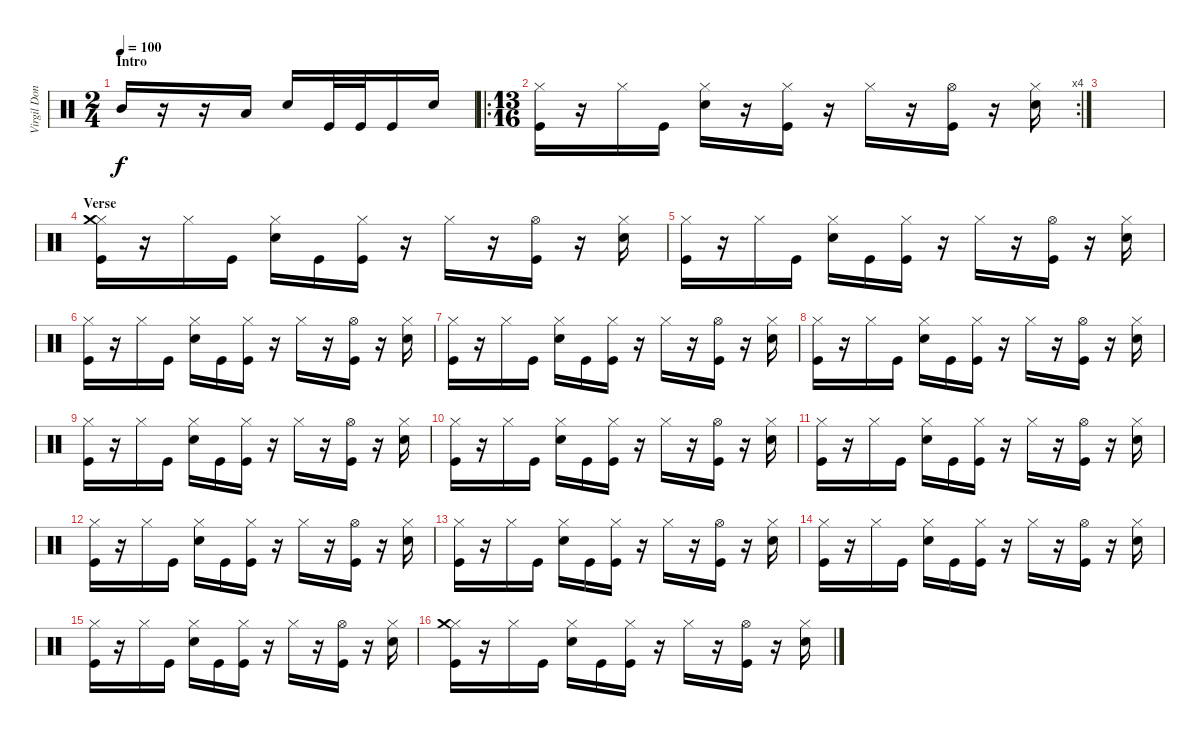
\track ("Virgil Donati" "Virgil Don") {instrument percussion}
\staff {score}
\articulation defaults
\ts (2 4)
\section ("" "Intro")
\tempo 100
\clef neutral
\ks c "Mid Tom (hit)".16{dy f}
r.16 r.16 "Low Tom (hit)".16 "Electric Snare (hit)".16 "Kick (hit)".32 "Kick (hit)".32 "Kick (hit)".16 "Electric Snare (hit)".16 |
\ro
\rc 4
\ts (13 16)
("Hi-Hat (closed)" "Kick (hit)").16 r.16 "Hi-Hat (closed)".16 "Kick (hit)".16 ("Hi-Hat (closed)" "Electric Snare (hit)").16 r.16 ("Hi-Hat (closed)" "Kick (hit)").16 r.16 "Hi-Hat (closed)".16 r.16 ("Hi-Hat (open)" "Kick (hit)").16 r.16 ("Hi-Hat (closed)" "Electric Snare (hit)").16 |
|
\section ("" "Verse")
("Hi-Hat (closed)" "Crash medium (hit)" "Kick (hit)").16 r.16 "Hi-Hat (closed)".16 "Kick (hit)".16 ("Hi-Hat (closed)" "Electric Snare (hit)").16 "Kick (hit)".16 ("Hi-Hat (closed)" "Kick (hit)").16 r.16 "Hi-Hat (closed)".16 r.16 ("Hi-Hat (open)" "Kick (hit)").16 r.16 ("Hi-Hat (closed)" "Electric Snare (hit)").16 |
("Hi-Hat (closed)" "Kick (hit)").16 r.16 "Hi-Hat (closed)".16 "Kick (hit)".16 ("Hi-Hat (closed)" "Electric Snare (hit)").16 "Kick (hit)".16 ("Hi-Hat (closed)" "Kick (hit)").16 r.16 "Hi-Hat (closed)".16 r.16 ("Hi-Hat (open)" "Kick (hit)").16 r.16 ("Hi-Hat (closed)" "Electric Snare (hit)").16 |
("Hi-Hat (closed)" "Kick (hit)").16 r.16 "Hi-Hat (closed)".16 "Kick (hit)".16 ("Hi-Hat (closed)" "Electric Snare (hit)").16 "Kick (hit)".16 ("Hi-Hat (closed)" "Kick (hit)").16 r.16 "Hi-Hat (closed)".16 r.16 ("Hi-Hat (open)" "Kick (hit)").16 r.16 ("Hi-Hat (closed)" "Electric Snare (hit)").16 |
("Hi-Hat (closed)" "Kick (hit)").16 r.16 "Hi-Hat (closed)".16 "Kick (hit)".16 ("Hi-Hat (closed)" "Electric Snare (hit)").16 "Kick (hit)".16 ("Hi-Hat (closed)" "Kick (hit)").16 r.16 "Hi-Hat (closed)".16 r.16 ("Hi-Hat (open)" "Kick (hit)").16 r.16 ("Hi-Hat (closed)" "Electric Snare (hit)").16 |
("Hi-Hat (closed)" "Kick (hit)").16 r.16 "Hi-Hat (closed)".16 "Kick (hit)".16 ("Hi-Hat (closed)" "Electric Snare (hit)").16 "Kick (hit)".16 ("Hi-Hat (closed)" "Kick (hit)").16 r.16 "Hi-Hat (closed)".16 r.16 ("Hi-Hat (open)" "Kick (hit)").16 r.16 ("Hi-Hat (closed)" "Electric Snare (hit)").16 |
("Hi-Hat (closed)" "Kick (hit)").16 r.16 "Hi-Hat (closed)".16 "Kick (hit)".16 ("Hi-Hat (closed)" "Electric Snare (hit)").16 "Kick (hit)".16 ("Hi-Hat (closed)" "Kick (hit)").16 r.16 "Hi-Hat (closed)".16 r.16 ("Hi-Hat (open)" "Kick (hit)").16 r.16 ("Hi-Hat (closed)" "Electric Snare (hit)").16 |
("Hi-Hat (closed)" "Kick (hit)").16 r.16 "Hi-Hat (closed)".16 "Kick (hit)".16 ("Hi-Hat (closed)" "Electric Snare (hit)").16 "Kick (hit)".16 ("Hi-Hat (closed)" "Kick (hit)").16 r.16 "Hi-Hat (closed)".16 r.16 ("Hi-Hat (open)" "Kick (hit)").16 r.16 ("Hi-Hat (closed)" "Electric Snare (hit)").16 |
("Hi-Hat (closed)" "Kick (hit)").16 r.16 "Hi-Hat (closed)".16 "Kick (hit)".16 ("Hi-Hat (closed)" "Electric Snare (hit)").16 "Kick (hit)".16 ("Hi-Hat (closed)" "Kick (hit)").16 r.16 "Hi-Hat (closed)".16 r.16 ("Hi-Hat (open)" "Kick (hit)").16 r.16 ("Hi-Hat (closed)" "Electric Snare (hit)").16 |
("Hi-Hat (closed)" "Kick (hit)").16 r.16 "Hi-Hat (closed)".16 "Kick (hit)".16 ("Hi-Hat (closed)" "Electric Snare (hit)").16 "Kick (hit)".16 ("Hi-Hat (closed)" "Kick (hit)").16 r.16 "Hi-Hat (closed)".16 r.16 ("Hi-Hat (open)" "Kick (hit)").16 r.16 ("Hi-Hat (closed)" "Electric Snare (hit)").16 |
("Hi-Hat (closed)" "Kick (hit)").16 r.16 "Hi-Hat (closed)".16 "Kick (hit)".16 ("Hi-Hat (closed)" "Electric Snare (hit)").16 "Kick (hit)".16 ("Hi-Hat (closed)" "Kick (hit)").16 r.16 "Hi-Hat (closed)".16 r.16 ("Hi-Hat (open)" "Kick (hit)").16 r.16 ("Hi-Hat (closed)" "Electric Snare (hit)").16 |
("Hi-Hat (closed)" "Kick (hit)").16 r.16 "Hi-Hat (closed)".16 "Kick (hit)".16 ("Hi-Hat (closed)" "Electric Snare (hit)").16 "Kick (hit)".16 ("Hi-Hat (closed)" "Kick (hit)").16 r.16 "Hi-Hat (closed)".16 r.16 ("Hi-Hat (open)" "Kick (hit)").16 r.16 ("Hi-Hat (closed)" "Electric Snare (hit)").16 |
("Hi-Hat (closed)" "Kick (hit)").16 r.16 "Hi-Hat (closed)".16 "Kick (hit)".16 ("Hi-Hat (closed)" "Electric Snare (hit)").16 "Kick (hit)".16 ("Hi-Hat (closed)" "Kick (hit)").16 r.16 "Hi-Hat (closed)".16 r.16 ("Hi-Hat (open)" "Kick (hit)").16 r.16 ("Hi-Hat (closed)" "Electric Snare (hit)").16 |
("Hi-Hat (closed)" "Crash medium (hit)" "Kick (hit)").16 r.16 "Hi-Hat (closed)".16 "Kick (hit)".16 ("Hi-Hat (closed)" "Electric Snare (hit)").16 "Kick (hit)".16 ("Hi-Hat (closed)" "Kick (hit)").16 r.16 "Hi-Hat (closed)".16 r.16 ("Hi-Hat (open)" "Kick (hit)").16 r.16 ("Hi-Hat (closed)" "Electric Snare (hit)").16
